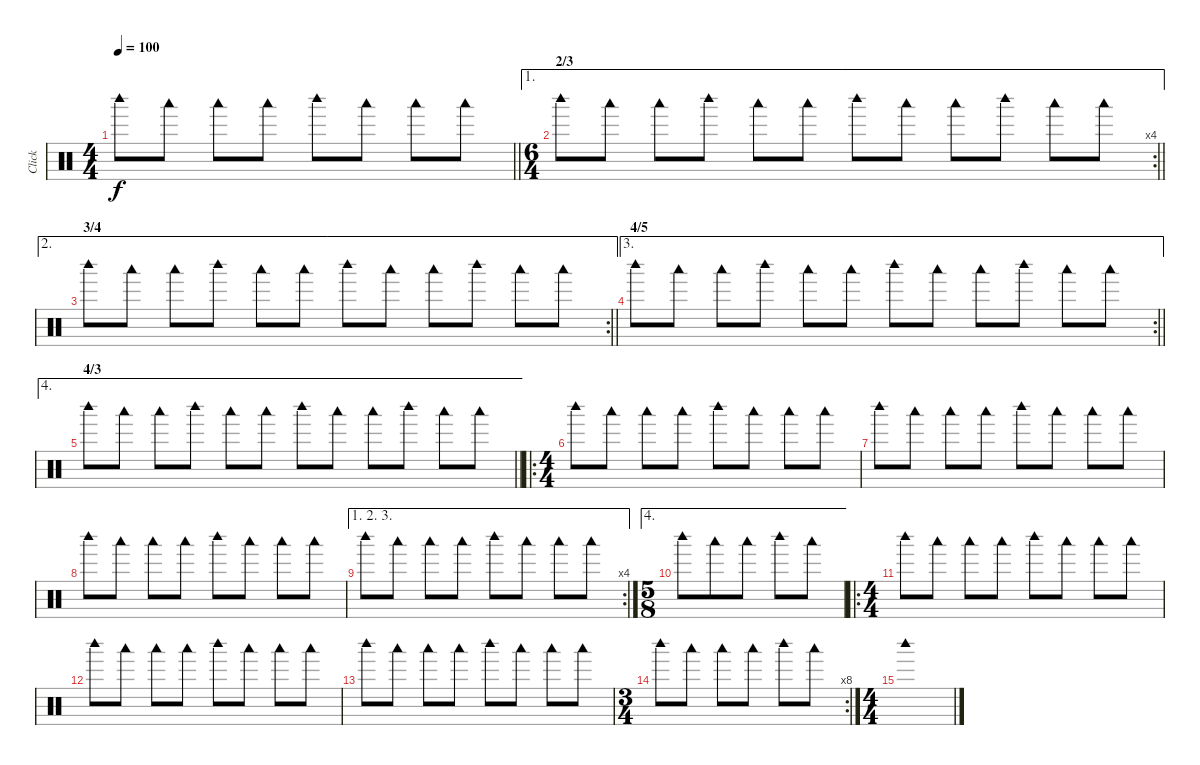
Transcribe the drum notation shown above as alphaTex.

\track ("Click" "Click") {mute instrument percussion}
\staff {score}
\articulation defaults
\ts (4 4)
\tempo 100
\clef neutral
\barLineRight lightlight
\ks c "Woodblock high (hit)".8{dy f} "Woodblock low (hit)".8 "Woodblock low (hit)".8 "Woodblock low (hit)".8 "Woodblock high (hit)".8 "Woodblock low (hit)".8 "Woodblock low (hit)".8 "Woodblock low (hit)".8
|
\ae 1
\rc 4
\ts (6 4)
\section ("" "2/3")
\barLineRight lightlight "Woodblock high (hit)".8 "Woodblock low (hit)".8 "Woodblock low (hit)".8 "Woodblock high (hit)".8 "Woodblock low (hit)".8 "Woodblock low (hit)".8 "Woodblock high (hit)".8 "Woodblock low (hit)".8 "Woodblock low (hit)".8 "Woodblock high (hit)".8 "Woodblock low (hit)".8 "Woodblock low (hit)".8
|
\ae 2
\rc 2
\section ("" "3/4")
\barLineRight lightlight "Woodblock high (hit)".8 "Woodblock low (hit)".8 "Woodblock low (hit)".8 "Woodblock high (hit)".8 "Woodblock low (hit)".8 "Woodblock low (hit)".8 "Woodblock high (hit)".8 "Woodblock low (hit)".8 "Woodblock low (hit)".8 "Woodblock high (hit)".8 "Woodblock low (hit)".8 "Woodblock low (hit)".8
|
\ae 3
\rc 2
\section ("" "4/5")
\barLineRight lightlight "Woodblock high (hit)".8 "Woodblock low (hit)".8 "Woodblock low (hit)".8 "Woodblock high (hit)".8 "Woodblock low (hit)".8 "Woodblock low (hit)".8 "Woodblock high (hit)".8 "Woodblock low (hit)".8 "Woodblock low (hit)".8 "Woodblock high (hit)".8 "Woodblock low (hit)".8 "Woodblock low (hit)".8
|
\ae 4
\section ("" "4/3")
\barLineRight lightlight "Woodblock high (hit)".8 "Woodblock low (hit)".8 "Woodblock low (hit)".8 "Woodblock high (hit)".8 "Woodblock low (hit)".8 "Woodblock low (hit)".8 "Woodblock high (hit)".8 "Woodblock low (hit)".8 "Woodblock low (hit)".8 "Woodblock high (hit)".8 "Woodblock low (hit)".8 "Woodblock low (hit)".8
|
\ro
\ts (4 4)
"Woodblock high (hit)".8 "Woodblock low (hit)".8 "Woodblock low (hit)".8 "Woodblock low (hit)".8 "Woodblock high (hit)".8 "Woodblock low (hit)".8 "Woodblock low (hit)".8 "Woodblock low (hit)".8 |
"Woodblock high (hit)".8 "Woodblock low (hit)".8 "Woodblock low (hit)".8 "Woodblock low (hit)".8 "Woodblock high (hit)".8 "Woodblock low (hit)".8 "Woodblock low (hit)".8 "Woodblock low (hit)".8 |
"Woodblock high (hit)".8 "Woodblock low (hit)".8 "Woodblock low (hit)".8 "Woodblock low (hit)".8 "Woodblock high (hit)".8 "Woodblock low (hit)".8 "Woodblock low (hit)".8 "Woodblock low (hit)".8 |
\ae (1 2 3)
\rc 4 "Woodblock high (hit)".8 "Woodblock low (hit)".8 "Woodblock low (hit)".8 "Woodblock low (hit)".8 "Woodblock high (hit)".8 "Woodblock low (hit)".8 "Woodblock low (hit)".8 "Woodblock low (hit)".8
|
\ae 4
\ts (5 8)
"Woodblock high (hit)".8 "Woodblock low (hit)".8 "Woodblock low (hit)".8 "Woodblock high (hit)".8 "Woodblock low (hit)".8 |
\ro
\ts (4 4)
"Woodblock high (hit)".8 "Woodblock low (hit)".8 "Woodblock low (hit)".8 "Woodblock low (hit)".8 "Woodblock high (hit)".8 "Woodblock low (hit)".8 "Woodblock low (hit)".8 "Woodblock low (hit)".8 |
"Woodblock high (hit)".8 "Woodblock low (hit)".8 "Woodblock low (hit)".8 "Woodblock low (hit)".8 "Woodblock high (hit)".8 "Woodblock low (hit)".8 "Woodblock low (hit)".8 "Woodblock low (hit)".8 |
"Woodblock high (hit)".8 "Woodblock low (hit)".8 "Woodblock low (hit)".8 "Woodblock low (hit)".8 "Woodblock high (hit)".8 "Woodblock low (hit)".8 "Woodblock low (hit)".8 "Woodblock low (hit)".8 |
\rc 8
\ts (3 4)
"Woodblock high (hit)".8 "Woodblock low (hit)".8 "Woodblock low (hit)".8 "Woodblock low (hit)".8 "Woodblock high (hit)".8 "Woodblock low (hit)".8 |
\ts (4 4)
"Woodblock high (hit)".1
